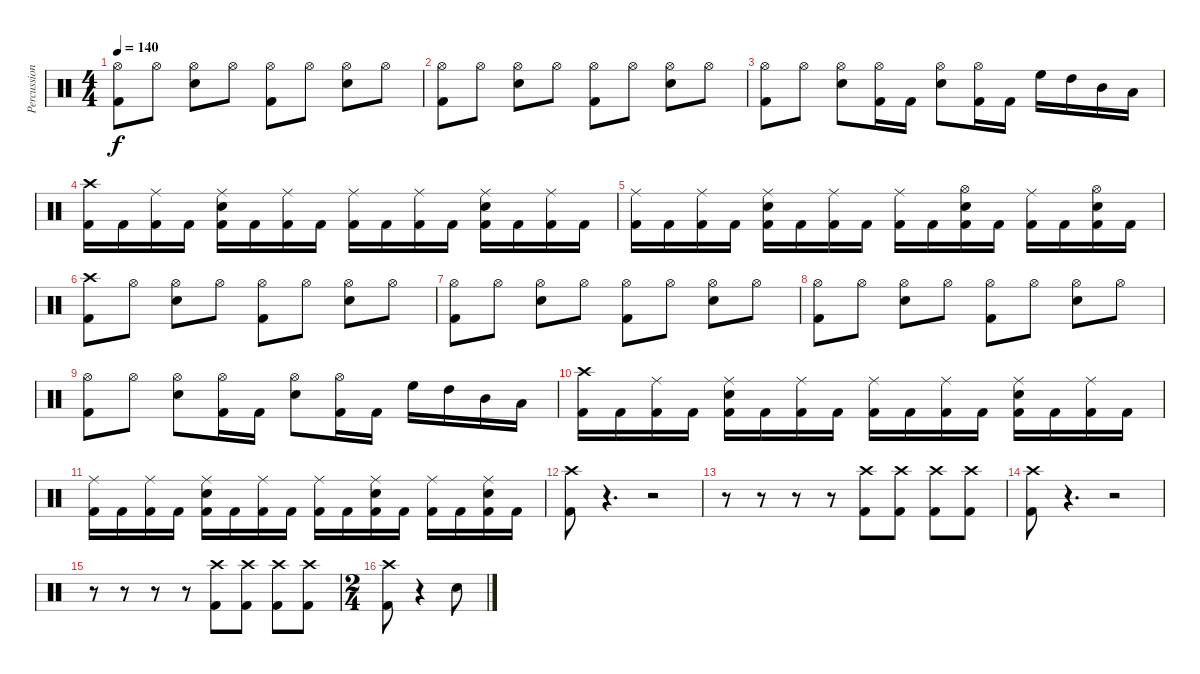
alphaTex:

\track ("Percussion" "Percussion") {instrument percussion}
\staff {score}
\articulation defaults
\ts (4 4)
\tempo 140
\clef neutral
\ks c
("Hi-Hat (open)" "Kick (hit) 2").8{dy f} "Hi-Hat (open)".8 ("Hi-Hat (open)" "Electric Snare (hit)").8 "Hi-Hat (open)".8 ("Hi-Hat (open)" "Kick (hit) 2").8 "Hi-Hat (open)".8 ("Hi-Hat (open)" "Electric Snare (hit)").8 "Hi-Hat (open)".8 |
("Hi-Hat (open)" "Kick (hit) 2").8 "Hi-Hat (open)".8 ("Hi-Hat (open)" "Electric Snare (hit)").8 "Hi-Hat (open)".8 ("Hi-Hat (open)" "Kick (hit) 2").8 "Hi-Hat (open)".8 ("Hi-Hat (open)" "Electric Snare (hit)").8 "Hi-Hat (open)".8 |
("Hi-Hat (open)" "Kick (hit) 2").8 "Hi-Hat (open)".8 ("Hi-Hat (open)" "Electric Snare (hit)").8 ("Hi-Hat (open)" "Kick (hit) 2").16 "Kick (hit) 2".16 ("Hi-Hat (open)" "Electric Snare (hit)").8 ("Hi-Hat (open)" "Kick (hit) 2").16 "Kick (hit) 2".16 "High Floor Tom (hit)".16 "High Tom (hit)".16 "Mid Tom (hit)".16 "Low Tom (hit)".16 |
("Crash high (hit)" "Kick (hit) 2").16 "Kick (hit) 2".16 ("Ride (middle)" "Kick (hit) 2").16 "Kick (hit) 2".16 ("Ride (middle)" "Electric Snare (hit)" "Kick (hit) 2").16 "Kick (hit) 2".16 ("Ride (middle)" "Kick (hit) 2").16 "Kick (hit) 2".16 ("Ride (middle)" "Kick (hit) 2").16 "Kick (hit) 2".16 ("Ride (middle)" "Kick (hit) 2").16 "Kick (hit) 2".16 ("Ride (middle)" "Electric Snare (hit)" "Kick (hit) 2").16 "Kick (hit) 2".16 ("Ride (middle)" "Kick (hit) 2").16 "Kick (hit) 2".16 |
("Ride (middle)" "Kick (hit) 2").16 "Kick (hit) 2".16 ("Ride (middle)" "Kick (hit) 2").16 "Kick (hit) 2".16 ("Ride (middle)" "Electric Snare (hit)" "Kick (hit) 2").16 "Kick (hit) 2".16 ("Ride (middle)" "Kick (hit) 2").16 "Kick (hit) 2".16 ("Ride (middle)" "Kick (hit) 2").16 "Kick (hit) 2".16 ("Hi-Hat (open)" "Electric Snare (hit)" "Kick (hit) 2").16 "Kick (hit) 2".16 ("Ride (middle)" "Kick (hit) 2").16 "Kick (hit) 2".16 ("Hi-Hat (open)" "Electric Snare (hit)" "Kick (hit) 2").16 "Kick (hit) 2".16 |
("Crash high (hit)" "Kick (hit) 2").8 "Hi-Hat (open)".8 ("Hi-Hat (open)" "Electric Snare (hit)").8 "Hi-Hat (open)".8 ("Hi-Hat (open)" "Kick (hit) 2").8 "Hi-Hat (open)".8 ("Hi-Hat (open)" "Electric Snare (hit)").8 "Hi-Hat (open)".8 |
("Hi-Hat (open)" "Kick (hit) 2").8 "Hi-Hat (open)".8 ("Hi-Hat (open)" "Electric Snare (hit)").8 "Hi-Hat (open)".8 ("Hi-Hat (open)" "Kick (hit) 2").8 "Hi-Hat (open)".8 ("Hi-Hat (open)" "Electric Snare (hit)").8 "Hi-Hat (open)".8 |
("Hi-Hat (open)" "Kick (hit) 2").8 "Hi-Hat (open)".8 ("Hi-Hat (open)" "Electric Snare (hit)").8 "Hi-Hat (open)".8 ("Hi-Hat (open)" "Kick (hit) 2").8 "Hi-Hat (open)".8 ("Hi-Hat (open)" "Electric Snare (hit)").8 "Hi-Hat (open)".8 |
("Hi-Hat (open)" "Kick (hit) 2").8 "Hi-Hat (open)".8 ("Hi-Hat (open)" "Electric Snare (hit)").8 ("Hi-Hat (open)" "Kick (hit) 2").16 "Kick (hit) 2".16 ("Hi-Hat (open)" "Electric Snare (hit)").8 ("Hi-Hat (open)" "Kick (hit) 2").16 "Kick (hit) 2".16 "High Floor Tom (hit)".16 "High Tom (hit)".16 "Mid Tom (hit)".16 "Low Tom (hit)".16 |
("Crash high (hit)" "Kick (hit) 2").16 "Kick (hit) 2".16 ("Ride (middle)" "Kick (hit) 2").16 "Kick (hit) 2".16 ("Ride (middle)" "Electric Snare (hit)" "Kick (hit) 2").16 "Kick (hit) 2".16 ("Ride (middle)" "Kick (hit) 2").16 "Kick (hit) 2".16 ("Ride (middle)" "Kick (hit) 2").16 "Kick (hit) 2".16 ("Ride (middle)" "Kick (hit) 2").16 "Kick (hit) 2".16 ("Ride (middle)" "Electric Snare (hit)" "Kick (hit) 2").16 "Kick (hit) 2".16 ("Ride (middle)" "Kick (hit) 2").16 "Kick (hit) 2".16 |
("Ride (middle)" "Kick (hit) 2").16 "Kick (hit) 2".16 ("Ride (middle)" "Kick (hit) 2").16 "Kick (hit) 2".16 ("Ride (middle)" "Electric Snare (hit)" "Kick (hit) 2").16 "Kick (hit) 2".16 ("Ride (middle)" "Kick (hit) 2").16 "Kick (hit) 2".16 ("Ride (middle)" "Kick (hit) 2").16 "Kick (hit) 2".16 ("Ride (middle)" "Electric Snare (hit)" "Kick (hit) 2").16 "Kick (hit) 2".16 ("Ride (middle)" "Kick (hit) 2").16 "Kick (hit) 2".16 ("Ride (middle)" "Electric Snare (hit)" "Kick (hit) 2").16 "Kick (hit) 2".16 |
("Crash high (hit)" "Kick (hit) 2").8 r.4{d volume 0} r.2 |
r.8 r.8 r.8 r.8 ("Crash high (hit)" "Kick (hit) 2").8{volume 13} ("Crash high (hit)" "Kick (hit) 2").8 ("Crash high (hit)" "Kick (hit) 2").8 ("Crash high (hit)" "Kick (hit) 2").8 |
("Crash high (hit)" "Kick (hit) 2").8 r.4{d volume 0} r.2 |
r.8 r.8 r.8 r.8 ("Crash high (hit)" "Kick (hit) 2").8{volume 13} ("Crash high (hit)" "Kick (hit) 2").8 ("Crash high (hit)" "Kick (hit) 2").8 ("Crash high (hit)" "Kick (hit) 2").8 |
\ts (2 4)
("Crash high (hit)" "Kick (hit) 2").8 r.4{volume 0} "Electric Snare (hit)".8{volume 13}
